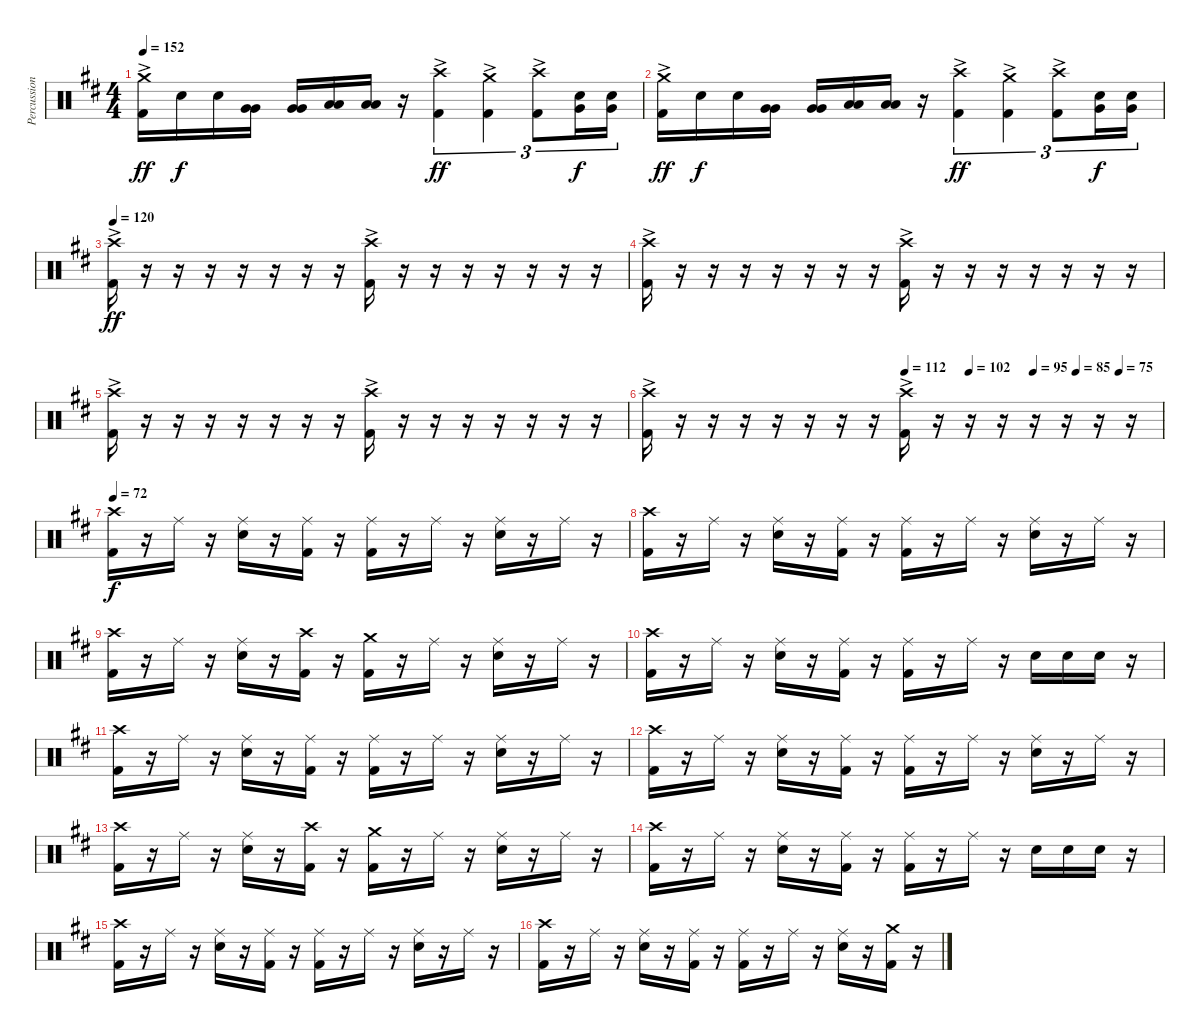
\track ("Percussion" "Percussion") {instrument percussion}
\staff {score}
\articulation defaults
\ts (4 4)
\tempo 152
\clef neutral
\ks d
("Crash medium (hit)"{ac} "Kick (hit) 2"{ac}).16{dy ff} "Snare (hit) 2".16{dy f} "Snare (hit) 2".16 ("Very Low Tom (hit)" "Very Low Tom (hit)").16 ("Very Low Tom (hit)" "Very Low Tom (hit)").16 ("Low Tom (hit)" "Low Tom (hit)").16 ("Low Tom (hit)" "Low Tom (hit)").16 r.16 ("Crash high (hit)"{ac} "Kick (hit) 2"{ac}).4{tu (3 2) dy ff} ("Crash medium (hit)"{ac} "Kick (hit) 2"{ac}).4{tu (3 2)} ("Crash high (hit)"{ac} "Kick (hit) 2"{ac}).8{tu (3 2)} ("Very Low Tom (hit)" "Snare (hit) 2").16{tu (3 2) dy f} ("Very Low Tom (hit)" "Snare (hit) 2").16{tu (3 2)} |
("Crash medium (hit)"{ac} "Kick (hit) 2"{ac}).16{dy ff} "Snare (hit) 2".16{dy f} "Snare (hit) 2".16 ("Very Low Tom (hit)" "Very Low Tom (hit)").16 ("Very Low Tom (hit)" "Very Low Tom (hit)").16 ("Low Tom (hit)" "Low Tom (hit)").16 ("Low Tom (hit)" "Low Tom (hit)").16 r.16 ("Crash high (hit)"{ac} "Kick (hit) 2"{ac}).4{tu (3 2) dy ff} ("Crash medium (hit)"{ac} "Kick (hit) 2"{ac}).4{tu (3 2)} ("Crash high (hit)"{ac} "Kick (hit) 2"{ac}).8{tu (3 2)} ("Very Low Tom (hit)" "Snare (hit) 2").16{tu (3 2) dy f} ("Very Low Tom (hit)" "Snare (hit) 2").16{tu (3 2)} |
\tempo 120
("Crash high (hit)"{ac} "Kick (hit) 2"{ac}).16{dy ff} r.16 r.16 r.16 r.16 r.16 r.16 r.16 ("Crash high (hit)"{ac} "Kick (hit) 2"{ac}).16 r.16 r.16 r.16 r.16 r.16 r.16 r.16 |
("Crash high (hit)"{ac} "Kick (hit) 2"{ac}).16 r.16 r.16 r.16 r.16 r.16 r.16 r.16 ("Crash high (hit)"{ac} "Kick (hit) 2"{ac}).16 r.16 r.16 r.16 r.16 r.16 r.16 r.16 |
("Crash high (hit)"{ac} "Kick (hit) 2"{ac}).16 r.16 r.16 r.16 r.16 r.16 r.16 r.16 ("Crash high (hit)"{ac} "Kick (hit) 2"{ac}).16 r.16 r.16 r.16 r.16 r.16 r.16 r.16 |
\tempo (112 0.5)
\tempo (102 0.625)
\tempo (95 0.75)
\tempo (85 0.8333333333333334)
\tempo (75 0.9166666666666666)
("Crash high (hit)"{ac} "Kick (hit) 2"{ac}).16 r.16 r.16 r.16 r.16 r.16 r.16 r.16 ("Crash high (hit)"{ac} "Kick (hit) 2"{ac}).16 r.16 r.16 r.16 r.16 r.16 r.16 r.16 |
\tempo 72
("Crash high (hit)" "Kick (hit) 2").16{dy f} r.16 "Ride (middle)".16 r.16 ("Ride (middle)" "Snare (hit) 2").16 r.16 ("Ride (middle)" "Kick (hit) 2").16 r.16 ("Ride (middle)" "Kick (hit) 2").16 r.16 "Ride (middle)".16 r.16 ("Ride (middle)" "Snare (hit) 2").16 r.16 "Ride (middle)".16 r.16 |
("Crash high (hit)" "Kick (hit) 2").16 r.16 "Ride (middle)".16 r.16 ("Ride (middle)" "Snare (hit) 2").16 r.16 ("Ride (middle)" "Kick (hit) 2").16 r.16 ("Ride (middle)" "Kick (hit) 2").16 r.16 "Ride (middle)".16 r.16 ("Ride (middle)" "Snare (hit) 2").16 r.16 "Ride (middle)".16 r.16 |
("Crash high (hit)" "Kick (hit) 2").16 r.16 "Ride (middle)".16 r.16 ("Ride (middle)" "Snare (hit) 2").16 r.16 ("Crash high (hit)" "Kick (hit) 2").16 r.16 ("Crash medium (hit)" "Kick (hit) 2").16 r.16 "Ride (middle)".16 r.16 ("Ride (middle)" "Snare (hit) 2").16 r.16 "Ride (middle)".16 r.16 |
("Crash high (hit)" "Kick (hit) 2").16 r.16 "Ride (middle)".16 r.16 ("Ride (middle)" "Snare (hit) 2").16 r.16 ("Ride (middle)" "Kick (hit) 2").16 r.16 ("Ride (middle)" "Kick (hit) 2").16 r.16 "Ride (middle)".16 r.16 "Snare (hit) 2".16 "Snare (hit) 2".16 "Snare (hit) 2".16 r.16 |
("Crash high (hit)" "Kick (hit) 2").16 r.16 "Ride (middle)".16 r.16 ("Ride (middle)" "Snare (hit) 2").16 r.16 ("Ride (middle)" "Kick (hit) 2").16 r.16 ("Ride (middle)" "Kick (hit) 2").16 r.16 "Ride (middle)".16 r.16 ("Ride (middle)" "Snare (hit) 2").16 r.16 "Ride (middle)".16 r.16 |
("Crash high (hit)" "Kick (hit) 2").16 r.16 "Ride (middle)".16 r.16 ("Ride (middle)" "Snare (hit) 2").16 r.16 ("Ride (middle)" "Kick (hit) 2").16 r.16 ("Ride (middle)" "Kick (hit) 2").16 r.16 "Ride (middle)".16 r.16 ("Ride (middle)" "Snare (hit) 2").16 r.16 "Ride (middle)".16 r.16 |
("Crash high (hit)" "Kick (hit) 2").16 r.16 "Ride (middle)".16 r.16 ("Ride (middle)" "Snare (hit) 2").16 r.16 ("Crash high (hit)" "Kick (hit) 2").16 r.16 ("Crash medium (hit)" "Kick (hit) 2").16 r.16 "Ride (middle)".16 r.16 ("Ride (middle)" "Snare (hit) 2").16 r.16 "Ride (middle)".16 r.16 |
("Crash high (hit)" "Kick (hit) 2").16 r.16 "Ride (middle)".16 r.16 ("Ride (middle)" "Snare (hit) 2").16 r.16 ("Ride (middle)" "Kick (hit) 2").16 r.16 ("Ride (middle)" "Kick (hit) 2").16 r.16 "Ride (middle)".16 r.16 "Snare (hit) 2".16 "Snare (hit) 2".16 "Snare (hit) 2".16 r.16 |
("Crash high (hit)" "Kick (hit) 2").16 r.16 "Ride (middle)".16 r.16 ("Ride (middle)" "Snare (hit) 2").16 r.16 ("Ride (middle)" "Kick (hit) 2").16 r.16 ("Ride (middle)" "Kick (hit) 2").16 r.16 "Ride (middle)".16 r.16 ("Ride (middle)" "Snare (hit) 2").16 r.16 "Ride (middle)".16 r.16 |
("Crash high (hit)" "Kick (hit) 2").16 r.16 "Ride (middle)".16 r.16 ("Ride (middle)" "Snare (hit) 2").16 r.16 ("Ride (middle)" "Kick (hit) 2").16 r.16 ("Ride (middle)" "Kick (hit) 2").16 r.16 "Ride (middle)".16 r.16 ("Ride (middle)" "Snare (hit) 2").16 r.16 ("Crash medium (hit)" "Kick (hit) 2").16 r.16
